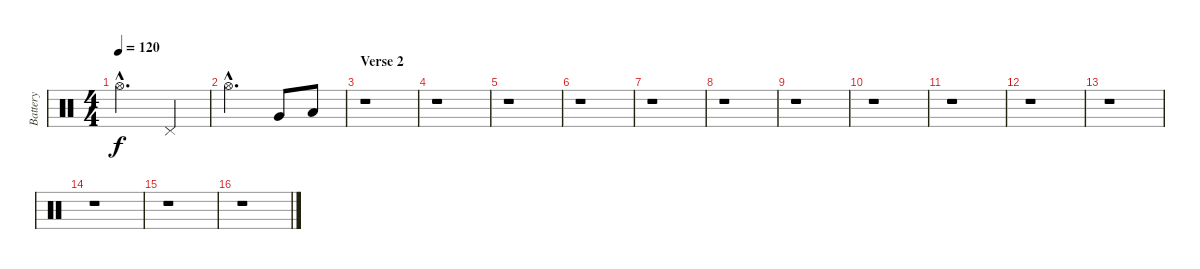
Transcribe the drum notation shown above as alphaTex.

\track ("Battery" "Battery") {instrument percussion}
\staff {score}
\articulation defaults
\ts (4 4)
\tempo 120
\clef neutral
\ks c "Hi-Hat (open)"{hac}.2{d dy f} "Pedal Hi-Hat (hit)".4
|
"Hi-Hat (open)"{hac}.2{d} "Very Low Tom (hit)".8 "Low Floor Tom (hit)".8 |
\section ("" "Verse 2")
r.1 |
r.1 |
r.1 |
r.1 |
r.1 |
r.1 |
r.1 |
r.1 |
r.1 |
r.1 |
r.1 |
r.1 |
r.1 |
r.1
